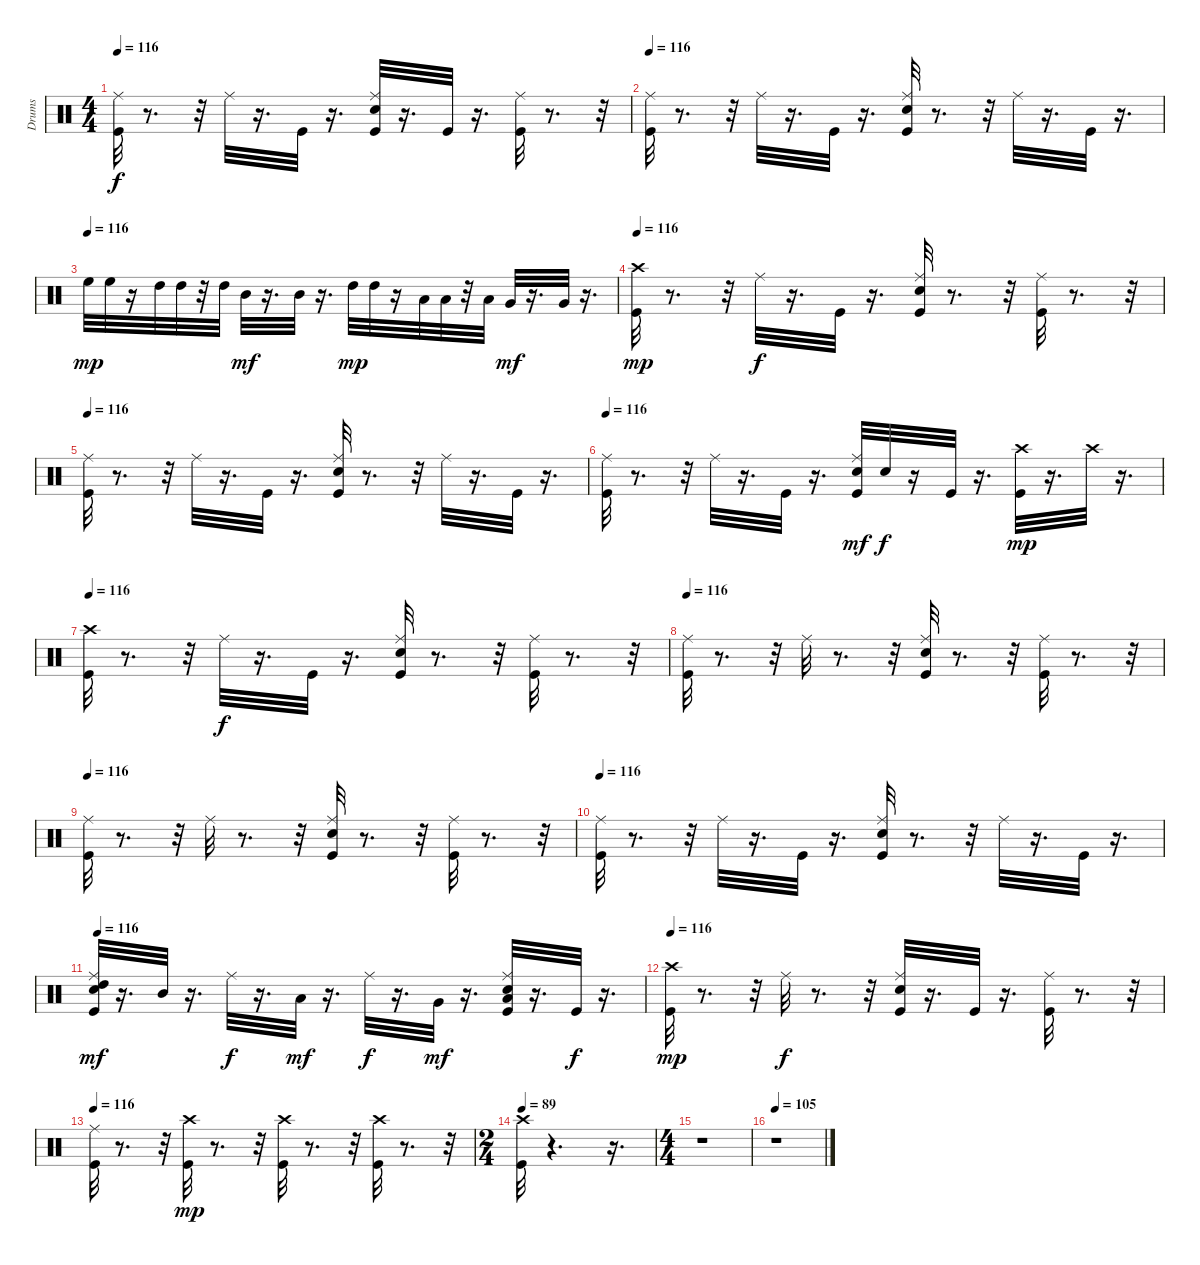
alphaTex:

\track ("Drums" "Drums") {instrument percussion}
\staff {score}
\articulation defaults
\ts (4 4)
\tempo 116
\clef neutral
\ks c
("Kick (hit)" "Ride (middle)").32{dy f} r.8{d} r.32 "Ride (middle)".32 r.16{d} "Kick (hit)".32 r.16{d} ("Kick (hit)" "Snare (hit) 2" "Ride (middle)").32 r.16{d} "Kick (hit)".32 r.16{d} ("Kick (hit)" "Ride (middle)").32 r.8{d} r.32 |
\tempo 116
("Kick (hit)" "Ride (middle)").32 r.8{d} r.32 "Ride (middle)".32 r.16{d} "Kick (hit)".32 r.16{d} ("Kick (hit)" "Snare (hit) 2" "Ride (middle)").32 r.8{d} r.32 "Ride (middle)".32 r.16{d} "Kick (hit)".32 r.16{d} |
\tempo (116)
"High Floor Tom (hit)".32{dy mp} "High Floor Tom (hit)".32 r.16 "High Tom (hit)".32 "High Tom (hit)".32 r.32 "High Tom (hit)".32 "Mid Tom (hit)".32{dy mf} r.16{d} "Mid Tom (hit)".32 r.16{d} "High Tom (hit)".32{dy mp} "High Tom (hit)".32 r.16 "Low Tom (hit)".32 "Low Tom (hit)".32 r.32 "Low Tom (hit)".32 "Very Low Tom (hit)".32{dy mf} r.16{d} "Very Low Tom (hit)".32 r.16{d} |
\tempo 116
("Kick (hit)" "Crash high (hit)").32{dy mp} r.8{d} r.32 "Ride (middle)".32{dy f} r.16{d} "Kick (hit)".32 r.16{d} ("Kick (hit)" "Snare (hit) 2" "Ride (middle)").32 r.8{d} r.32 ("Kick (hit)" "Ride (middle)").32 r.8{d} r.32 |
\tempo 116
("Kick (hit)" "Ride (middle)").32 r.8{d} r.32 "Ride (middle)".32 r.16{d} "Kick (hit)".32 r.16{d} ("Kick (hit)" "Snare (hit) 2" "Ride (middle)").32 r.8{d} r.32 "Ride (middle)".32 r.16{d} "Kick (hit)".32 r.16{d} |
\tempo 116
("Kick (hit)" "Ride (middle)").32 r.8{d} r.32 "Ride (middle)".32 r.16{d} "Kick (hit)".32 r.16{d} ("Kick (hit)" "Snare (hit) 2" "Ride (middle)").32{dy mf} "Snare (hit) 2".32{dy f} r.16 "Kick (hit)".32 r.16{d} ("Kick (hit)" "Crash high (hit)").32{dy mp} r.16{d} "Crash high (hit)".32 r.16{d} |
\tempo 116
("Kick (hit)" "Crash high (hit)").32 r.8{d} r.32 "Ride (middle)".32{dy f} r.16{d} "Kick (hit)".32 r.16{d} ("Kick (hit)" "Snare (hit) 2" "Ride (middle)").32 r.8{d} r.32 ("Kick (hit)" "Ride (middle)").32 r.8{d} r.32 |
\tempo 116
("Kick (hit)" "Ride (middle)").32 r.8{d} r.32 "Ride (middle)".32 r.8{d} r.32 ("Kick (hit)" "Snare (hit) 2" "Ride (middle)").32 r.8{d} r.32 ("Kick (hit)" "Ride (middle)").32 r.8{d} r.32 |
\tempo 116
("Kick (hit)" "Ride (middle)").32 r.8{d} r.32 "Ride (middle)".32 r.8{d} r.32 ("Kick (hit)" "Snare (hit) 2" "Ride (middle)").32 r.8{d} r.32 ("Kick (hit)" "Ride (middle)").32 r.8{d} r.32 |
\tempo 116
("Kick (hit)" "Ride (middle)").32 r.8{d} r.32 "Ride (middle)".32 r.16{d} "Kick (hit)".32 r.16{d} ("Kick (hit)" "Snare (hit) 2" "Ride (middle)").32 r.8{d} r.32 "Ride (middle)".32 r.16{d} "Kick (hit)".32 r.16{d} |
\tempo 116
("Kick (hit)" "Snare (hit) 2" "High Tom (hit)" "Ride (middle)").32{dy mf} r.16{d} "Mid Tom (hit)".32 r.16{d} "Ride (middle)".32{dy f} r.16{d} "Low Tom (hit)".32{dy mf} r.16{d} "Ride (middle)".32{dy f} r.16{d} "Very Low Tom (hit)".32{dy mf} r.16{d} ("Kick (hit)" "Snare (hit) 2" "Low Floor Tom (hit)" "Ride (middle)").32 r.16{d} "Kick (hit)".32{dy f} r.16{d} |
\tempo 116
("Kick (hit)" "Crash high (hit)").32{dy mp} r.8{d} r.32 "Ride (middle)".32{dy f} r.8{d} r.32 ("Kick (hit)" "Snare (hit) 2" "Ride (middle)").32 r.16{d} "Kick (hit)".32 r.16{d} ("Kick (hit)" "Ride (middle)").32 r.8{d} r.32 |
\tempo 116
("Kick (hit)" "Ride (middle)").32 r.8{d} r.32 ("Kick (hit)" "Crash high (hit)").32{dy mp} r.8{d} r.32 ("Kick (hit)" "Crash high (hit)").32 r.8{d} r.32 ("Kick (hit)" "Crash high (hit)").32 r.8{d} r.32 |
\ts (2 4)
\tempo 89
("Kick (hit)" "Crash high (hit)").32 r.4{d} r.16{d} |
\ts (4 4)
r.1 |
\tempo 105
r.1
